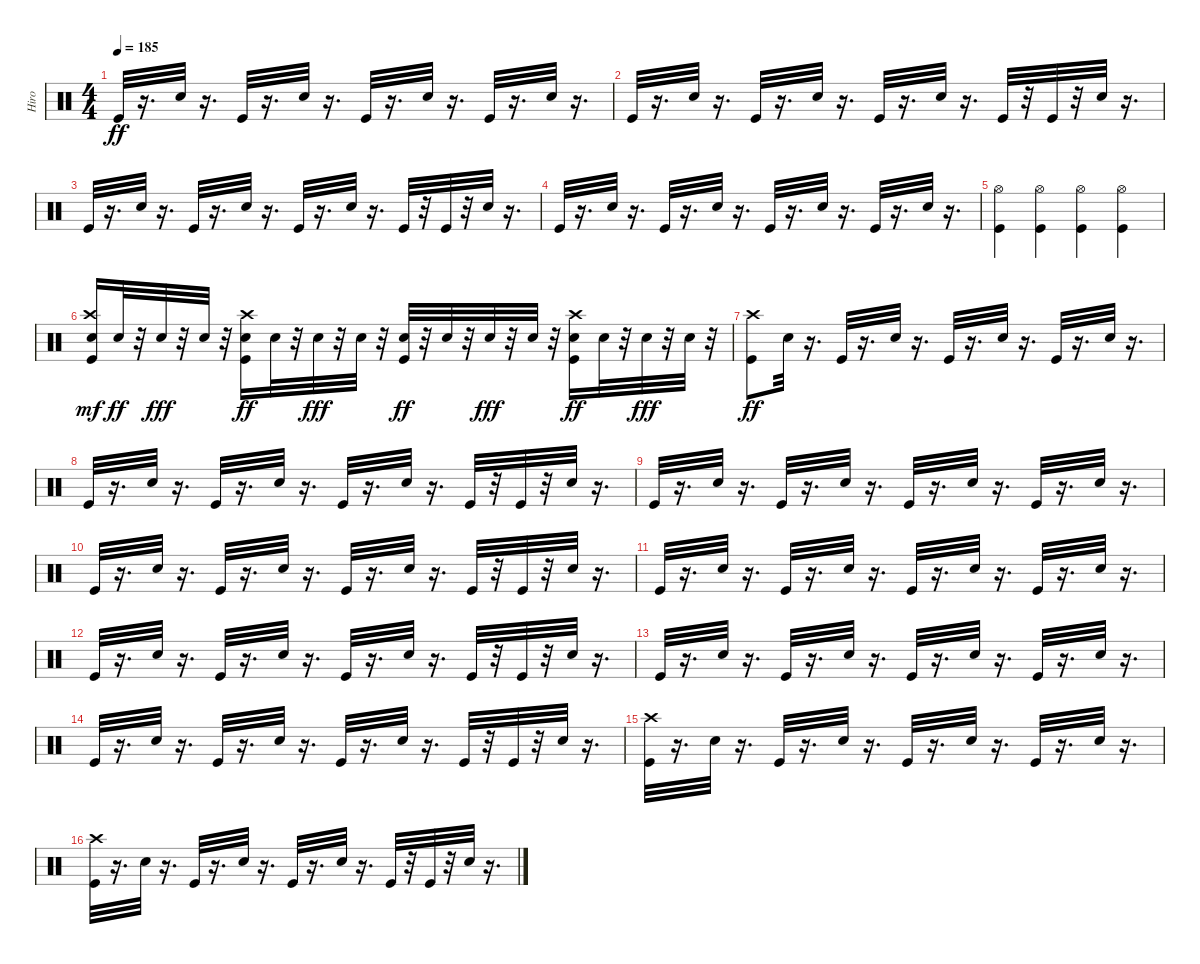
\track ("Hiro" "Hiro") {instrument percussion}
\staff {score}
\articulation defaults
\ts (4 4)
\tempo 185
\clef neutral
\ks c "Kick (hit)".32{dy ff}
r.16{d} "Electric Snare (hit)".32 r.16{d} "Kick (hit)".32 r.16{d} "Electric Snare (hit)".32 r.16{d} "Kick (hit)".32 r.16{d} "Electric Snare (hit)".32 r.16{d} "Kick (hit)".32 r.16{d} "Electric Snare (hit)".32 r.16{d} |
"Kick (hit)".32 r.16{d} "Electric Snare (hit)".32 r.16{d} "Kick (hit)".32 r.16{d} "Electric Snare (hit)".32 r.16{d} "Kick (hit)".32 r.16{d} "Electric Snare (hit)".32 r.16{d} "Kick (hit)".32 r.32 "Kick (hit)".32 r.32 "Electric Snare (hit)".32 r.16{d} |
"Kick (hit)".32 r.16{d} "Electric Snare (hit)".32 r.16{d} "Kick (hit)".32 r.16{d} "Electric Snare (hit)".32 r.16{d} "Kick (hit)".32 r.16{d} "Electric Snare (hit)".32 r.16{d} "Kick (hit)".32 r.32 "Kick (hit)".32 r.32 "Electric Snare (hit)".32 r.16{d} |
"Kick (hit)".32 r.16{d} "Electric Snare (hit)".32 r.16{d} "Kick (hit)".32 r.16{d} "Electric Snare (hit)".32 r.16{d} "Kick (hit)".32 r.16{d} "Electric Snare (hit)".32 r.16{d} "Kick (hit)".32 r.16{d} "Electric Snare (hit)".32 r.16{d} |
("Hi-Hat (open)" "Kick (hit)").4 ("Hi-Hat (open)" "Kick (hit)").4 ("Hi-Hat (open)" "Kick (hit)").4 ("Hi-Hat (open)" "Kick (hit)").4 |
("Crash high (hit)" "Kick (hit)" "Snare (hit) 2").16{dy mf} "Electric Snare (hit)".32{dy ff} r.32 "Snare (hit) 2".32{dy fff} r.32 "Snare (hit) 2".32 r.32 ("Crash high (hit)" "Electric Snare (hit)" "Kick (hit)").16{dy ff} "Electric Snare (hit)".32 r.32 "Snare (hit) 2".32{dy fff} r.32 "Snare (hit) 2".32 r.32 ("Snare (hit) 2" "Kick (hit)").32{dy ff} r.32 "Electric Snare (hit)".32 r.32 "Snare (hit) 2".32{dy fff} r.32 "Snare (hit) 2".32 r.32 ("Crash high (hit)" "Electric Snare (hit)" "Kick (hit)").16{dy ff} "Electric Snare (hit)".32 r.32 "Snare (hit) 2".32{dy fff} r.32 "Snare (hit) 2".32 r.32 |
("Crash high (hit)" "Kick (hit)").8{dy ff} "Electric Snare (hit)".32 r.16{d} "Kick (hit)".32 r.16{d} "Electric Snare (hit)".32 r.16{d} "Kick (hit)".32 r.16{d} "Electric Snare (hit)".32 r.16{d} "Kick (hit)".32 r.16{d} "Electric Snare (hit)".32 r.16{d} |
"Kick (hit)".32 r.16{d} "Electric Snare (hit)".32 r.16{d} "Kick (hit)".32 r.16{d} "Electric Snare (hit)".32 r.16{d} "Kick (hit)".32 r.16{d} "Electric Snare (hit)".32 r.16{d} "Kick (hit)".32 r.32 "Kick (hit)".32 r.32 "Electric Snare (hit)".32 r.16{d} |
"Kick (hit)".32 r.16{d} "Electric Snare (hit)".32 r.16{d} "Kick (hit)".32 r.16{d} "Electric Snare (hit)".32 r.16{d} "Kick (hit)".32 r.16{d} "Electric Snare (hit)".32 r.16{d} "Kick (hit)".32 r.16{d} "Electric Snare (hit)".32 r.16{d} |
"Kick (hit)".32 r.16{d} "Electric Snare (hit)".32 r.16{d} "Kick (hit)".32 r.16{d} "Electric Snare (hit)".32 r.16{d} "Kick (hit)".32 r.16{d} "Electric Snare (hit)".32 r.16{d} "Kick (hit)".32 r.32 "Kick (hit)".32 r.32 "Electric Snare (hit)".32 r.16{d} |
"Kick (hit)".32 r.16{d} "Electric Snare (hit)".32 r.16{d} "Kick (hit)".32 r.16{d} "Electric Snare (hit)".32 r.16{d} "Kick (hit)".32 r.16{d} "Electric Snare (hit)".32 r.16{d} "Kick (hit)".32 r.16{d} "Electric Snare (hit)".32 r.16{d} |
"Kick (hit)".32 r.16{d} "Electric Snare (hit)".32 r.16{d} "Kick (hit)".32 r.16{d} "Electric Snare (hit)".32 r.16{d} "Kick (hit)".32 r.16{d} "Electric Snare (hit)".32 r.16{d} "Kick (hit)".32 r.32 "Kick (hit)".32 r.32 "Electric Snare (hit)".32 r.16{d} |
"Kick (hit)".32 r.16{d} "Electric Snare (hit)".32 r.16{d} "Kick (hit)".32 r.16{d} "Electric Snare (hit)".32 r.16{d} "Kick (hit)".32 r.16{d} "Electric Snare (hit)".32 r.16{d} "Kick (hit)".32 r.16{d} "Electric Snare (hit)".32 r.16{d} |
"Kick (hit)".32 r.16{d} "Electric Snare (hit)".32 r.16{d} "Kick (hit)".32 r.16{d} "Electric Snare (hit)".32 r.16{d} "Kick (hit)".32 r.16{d} "Electric Snare (hit)".32 r.16{d} "Kick (hit)".32 r.32 "Kick (hit)".32 r.32 "Electric Snare (hit)".32 r.16{d} |
("Crash high (hit)" "Kick (hit)").32 r.16{d} "Electric Snare (hit)".32 r.16{d} "Kick (hit)".32 r.16{d} "Electric Snare (hit)".32 r.16{d} "Kick (hit)".32 r.16{d} "Electric Snare (hit)".32 r.16{d} "Kick (hit)".32 r.16{d} "Electric Snare (hit)".32 r.16{d} |
("Crash high (hit)" "Kick (hit)").32 r.16{d} "Electric Snare (hit)".32 r.16{d} "Kick (hit)".32 r.16{d} "Electric Snare (hit)".32 r.16{d} "Kick (hit)".32 r.16{d} "Electric Snare (hit)".32 r.16{d} "Kick (hit)".32 r.32 "Kick (hit)".32 r.32 "Electric Snare (hit)".32 r.16{d}
